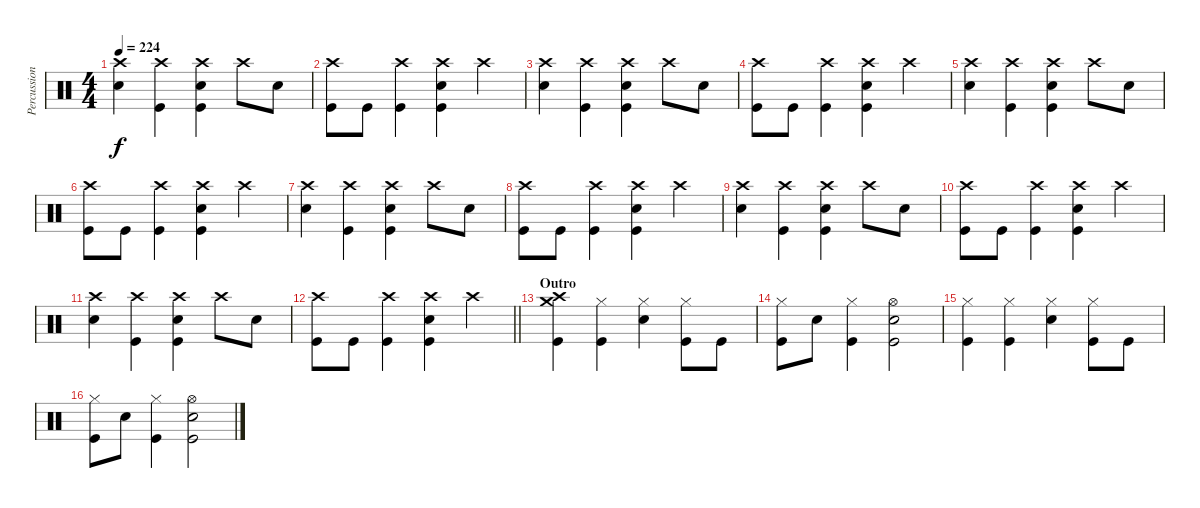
\track ("Percussion" "Percussion") {instrument percussion}
\staff {score}
\articulation defaults
\ts (4 4)
\tempo 224
\clef neutral
\ks c
("Crash high (hit)" "Electric Snare (hit)").4{dy f} ("Crash high (hit)" "Kick (hit)").4 ("Crash high (hit)" "Electric Snare (hit)" "Kick (hit)").4 "Crash high (hit)".8 "Electric Snare (hit)".8 |
("Crash high (hit)" "Kick (hit)").8 "Kick (hit)".8 ("Crash high (hit)" "Kick (hit)").4 ("Crash high (hit)" "Electric Snare (hit)" "Kick (hit)").4 "Crash high (hit)".4 |
("Crash high (hit)" "Electric Snare (hit)").4 ("Crash high (hit)" "Kick (hit)").4 ("Crash high (hit)" "Electric Snare (hit)" "Kick (hit)").4 "Crash high (hit)".8 "Electric Snare (hit)".8 |
("Crash high (hit)" "Kick (hit)").8 "Kick (hit)".8 ("Crash high (hit)" "Kick (hit)").4 ("Crash high (hit)" "Electric Snare (hit)" "Kick (hit)").4 "Crash high (hit)".4 |
("Crash high (hit)" "Electric Snare (hit)").4 ("Crash high (hit)" "Kick (hit)").4 ("Crash high (hit)" "Electric Snare (hit)" "Kick (hit)").4 "Crash high (hit)".8 "Electric Snare (hit)".8 |
("Crash high (hit)" "Kick (hit)").8 "Kick (hit)".8 ("Crash high (hit)" "Kick (hit)").4 ("Crash high (hit)" "Electric Snare (hit)" "Kick (hit)").4 "Crash high (hit)".4 |
("Crash high (hit)" "Electric Snare (hit)").4 ("Crash high (hit)" "Kick (hit)").4 ("Crash high (hit)" "Electric Snare (hit)" "Kick (hit)").4 "Crash high (hit)".8 "Electric Snare (hit)".8 |
("Crash high (hit)" "Kick (hit)").8 "Kick (hit)".8 ("Crash high (hit)" "Kick (hit)").4 ("Crash high (hit)" "Electric Snare (hit)" "Kick (hit)").4 "Crash high (hit)".4 |
("Crash high (hit)" "Electric Snare (hit)").4 ("Crash high (hit)" "Kick (hit)").4 ("Crash high (hit)" "Electric Snare (hit)" "Kick (hit)").4 "Crash high (hit)".8 "Electric Snare (hit)".8 |
("Crash high (hit)" "Kick (hit)").8 "Kick (hit)".8 ("Crash high (hit)" "Kick (hit)").4 ("Crash high (hit)" "Electric Snare (hit)" "Kick (hit)").4 "Crash high (hit)".4 |
("Crash high (hit)" "Electric Snare (hit)").4 ("Crash high (hit)" "Kick (hit)").4 ("Crash high (hit)" "Electric Snare (hit)" "Kick (hit)").4 "Crash high (hit)".8 "Electric Snare (hit)".8 |
\barLineRight lightlight
("Crash high (hit)" "Kick (hit)").8 "Kick (hit)".8 ("Crash high (hit)" "Kick (hit)").4 ("Crash high (hit)" "Electric Snare (hit)" "Kick (hit)").4 "Crash high (hit)".4 |
\section ("" "Outro")
("Crash high (hit)" "Crash medium (hit)" "Kick (hit)").4 ("Hi-Hat (closed)" "Kick (hit)").4 ("Hi-Hat (closed)" "Electric Snare (hit)").4 ("Hi-Hat (closed)" "Kick (hit)").8 "Kick (hit)".8 |
("Hi-Hat (closed)" "Kick (hit)").8 "Electric Snare (hit)".8 ("Hi-Hat (closed)" "Kick (hit)").4 ("Hi-Hat (open)" "Electric Snare (hit)" "Kick (hit)").2 |
("Hi-Hat (closed)" "Kick (hit)").4 ("Hi-Hat (closed)" "Kick (hit)").4 ("Hi-Hat (closed)" "Electric Snare (hit)").4 ("Hi-Hat (closed)" "Kick (hit)").8 "Kick (hit)".8 |
("Hi-Hat (closed)" "Kick (hit)").8 "Electric Snare (hit)".8 ("Hi-Hat (closed)" "Kick (hit)").4 ("Hi-Hat (open)" "Electric Snare (hit)" "Kick (hit)").2
